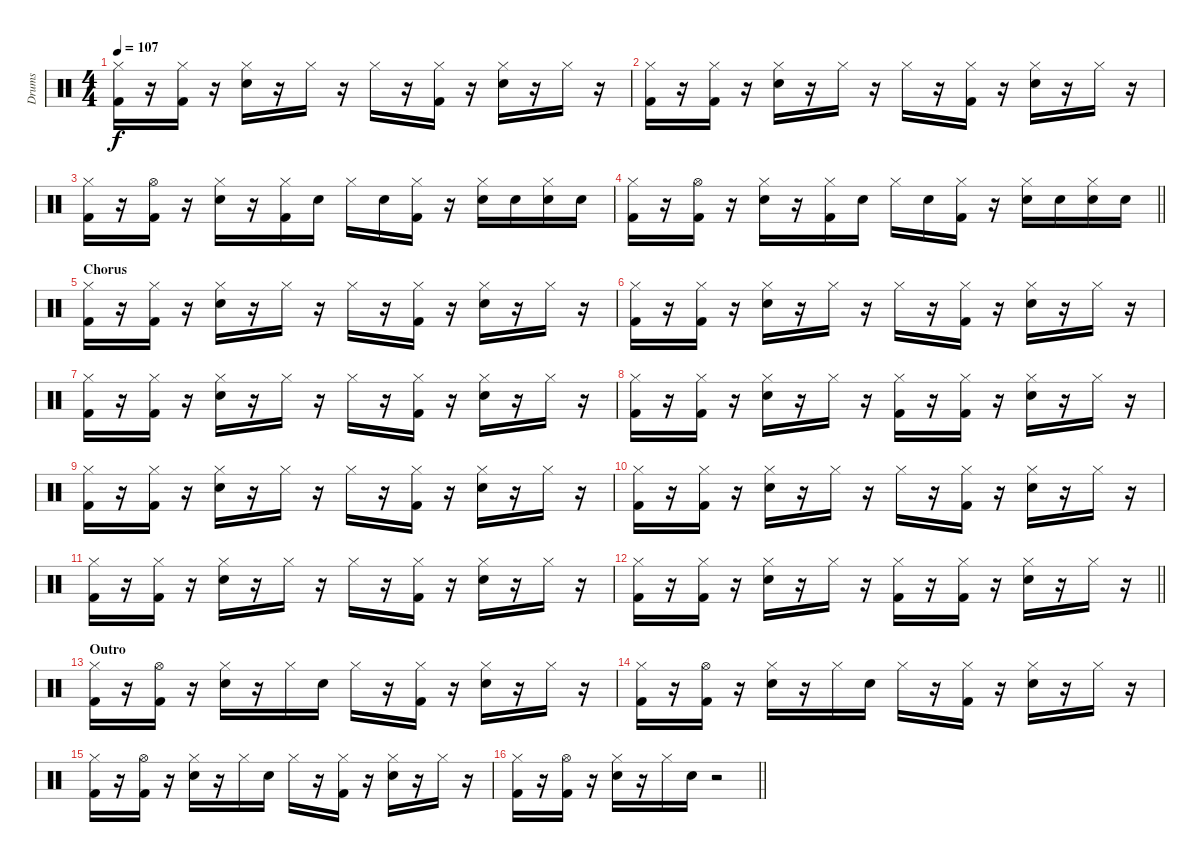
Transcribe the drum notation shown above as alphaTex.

\track ("Drums" "Drums") {instrument percussion}
\staff {score}
\articulation defaults
\ts (4 4)
\tempo 107
\clef neutral
\ks c
("Hi-Hat (closed)" "Kick (hit) 2").16{dy f} r.16 ("Hi-Hat (closed)" "Kick (hit) 2").16 r.16 ("Hi-Hat (closed)" "Electric Snare (hit)").16 r.16 "Hi-Hat (closed)".16 r.16 "Hi-Hat (closed)".16 r.16 ("Hi-Hat (closed)" "Kick (hit) 2").16 r.16 ("Hi-Hat (closed)" "Electric Snare (hit)").16 r.16 "Hi-Hat (closed)".16 r.16 |
("Hi-Hat (closed)" "Kick (hit) 2").16 r.16 ("Hi-Hat (closed)" "Kick (hit) 2").16 r.16 ("Hi-Hat (closed)" "Electric Snare (hit)").16 r.16 "Hi-Hat (closed)".16 r.16 "Hi-Hat (closed)".16 r.16 ("Hi-Hat (closed)" "Kick (hit) 2").16 r.16 ("Hi-Hat (closed)" "Electric Snare (hit)").16 r.16 "Hi-Hat (closed)".16 r.16 |
("Hi-Hat (closed)" "Kick (hit) 2").16 r.16 ("Hi-Hat (open)" "Kick (hit) 2").16 r.16 ("Hi-Hat (closed)" "Electric Snare (hit)").16 r.16 ("Hi-Hat (closed)" "Kick (hit) 2").16 "Electric Snare (hit)".16 "Hi-Hat (closed)".16 "Electric Snare (hit)".16 ("Hi-Hat (closed)" "Kick (hit) 2").16 r.16 ("Hi-Hat (closed)" "Electric Snare (hit)").16 "Electric Snare (hit)".16 ("Hi-Hat (closed)" "Electric Snare (hit)").16 "Electric Snare (hit)".16 |
\barLineRight lightlight
("Hi-Hat (closed)" "Kick (hit) 2").16 r.16 ("Hi-Hat (open)" "Kick (hit) 2").16 r.16 ("Hi-Hat (closed)" "Electric Snare (hit)").16 r.16 ("Hi-Hat (closed)" "Kick (hit) 2").16 "Electric Snare (hit)".16 "Hi-Hat (closed)".16 "Electric Snare (hit)".16 ("Hi-Hat (closed)" "Kick (hit) 2").16 r.16 ("Hi-Hat (closed)" "Electric Snare (hit)").16 "Electric Snare (hit)".16 ("Hi-Hat (closed)" "Electric Snare (hit)").16 "Electric Snare (hit)".16 |
\section ("" "Chorus")
("Hi-Hat (closed)" "Kick (hit) 2").16 r.16 ("Hi-Hat (closed)" "Kick (hit) 2").16 r.16 ("Hi-Hat (closed)" "Electric Snare (hit)").16 r.16 "Hi-Hat (closed)".16 r.16 "Hi-Hat (closed)".16 r.16 ("Hi-Hat (closed)" "Kick (hit) 2").16 r.16 ("Hi-Hat (closed)" "Electric Snare (hit)").16 r.16 "Hi-Hat (closed)".16 r.16 |
("Hi-Hat (closed)" "Kick (hit) 2").16 r.16 ("Hi-Hat (closed)" "Kick (hit) 2").16 r.16 ("Hi-Hat (closed)" "Electric Snare (hit)").16 r.16 "Hi-Hat (closed)".16 r.16 "Hi-Hat (closed)".16 r.16 ("Hi-Hat (closed)" "Kick (hit) 2").16 r.16 ("Hi-Hat (closed)" "Electric Snare (hit)").16 r.16 "Hi-Hat (closed)".16 r.16 |
("Hi-Hat (closed)" "Kick (hit) 2").16 r.16 ("Hi-Hat (closed)" "Kick (hit) 2").16 r.16 ("Hi-Hat (closed)" "Electric Snare (hit)").16 r.16 "Hi-Hat (closed)".16 r.16 "Hi-Hat (closed)".16 r.16 ("Hi-Hat (closed)" "Kick (hit) 2").16 r.16 ("Hi-Hat (closed)" "Electric Snare (hit)").16 r.16 "Hi-Hat (closed)".16 r.16 |
("Hi-Hat (closed)" "Kick (hit) 2").16 r.16 ("Hi-Hat (closed)" "Kick (hit) 2").16 r.16 ("Hi-Hat (closed)" "Electric Snare (hit)").16 r.16 "Hi-Hat (closed)".16 r.16 ("Hi-Hat (closed)" "Kick (hit) 2").16 r.16 ("Hi-Hat (closed)" "Kick (hit) 2").16 r.16 ("Hi-Hat (closed)" "Electric Snare (hit)").16 r.16 "Hi-Hat (closed)".16 r.16 |
("Hi-Hat (closed)" "Kick (hit) 2").16 r.16 ("Hi-Hat (closed)" "Kick (hit) 2").16 r.16 ("Hi-Hat (closed)" "Electric Snare (hit)").16 r.16 "Hi-Hat (closed)".16 r.16 "Hi-Hat (closed)".16 r.16 ("Hi-Hat (closed)" "Kick (hit) 2").16 r.16 ("Hi-Hat (closed)" "Electric Snare (hit)").16 r.16 "Hi-Hat (closed)".16 r.16 |
("Hi-Hat (closed)" "Kick (hit) 2").16 r.16 ("Hi-Hat (closed)" "Kick (hit) 2").16 r.16 ("Hi-Hat (closed)" "Electric Snare (hit)").16 r.16 "Hi-Hat (closed)".16 r.16 "Hi-Hat (closed)".16 r.16 ("Hi-Hat (closed)" "Kick (hit) 2").16 r.16 ("Hi-Hat (closed)" "Electric Snare (hit)").16 r.16 "Hi-Hat (closed)".16 r.16 |
("Hi-Hat (closed)" "Kick (hit) 2").16 r.16 ("Hi-Hat (closed)" "Kick (hit) 2").16 r.16 ("Hi-Hat (closed)" "Electric Snare (hit)").16 r.16 "Hi-Hat (closed)".16 r.16 "Hi-Hat (closed)".16 r.16 ("Hi-Hat (closed)" "Kick (hit) 2").16 r.16 ("Hi-Hat (closed)" "Electric Snare (hit)").16 r.16 "Hi-Hat (closed)".16 r.16 |
\barLineRight lightlight
("Hi-Hat (closed)" "Kick (hit) 2").16 r.16 ("Hi-Hat (closed)" "Kick (hit) 2").16 r.16 ("Hi-Hat (closed)" "Electric Snare (hit)").16 r.16 "Hi-Hat (closed)".16 r.16 ("Hi-Hat (closed)" "Kick (hit) 2").16 r.16 ("Hi-Hat (closed)" "Kick (hit) 2").16 r.16 ("Hi-Hat (closed)" "Electric Snare (hit)").16 r.16 "Hi-Hat (closed)".16 r.16 |
\section ("" "Outro")
("Hi-Hat (closed)" "Kick (hit) 2").16 r.16 ("Hi-Hat (open)" "Kick (hit) 2").16 r.16 ("Hi-Hat (closed)" "Electric Snare (hit)").16 r.16 "Hi-Hat (closed)".16 "Electric Snare (hit)".16 "Hi-Hat (closed)".16 r.16 ("Hi-Hat (closed)" "Kick (hit) 2").16 r.16 ("Hi-Hat (closed)" "Electric Snare (hit)").16 r.16 "Hi-Hat (closed)".16 r.16 |
("Hi-Hat (closed)" "Kick (hit) 2").16 r.16 ("Hi-Hat (open)" "Kick (hit) 2").16 r.16 ("Hi-Hat (closed)" "Electric Snare (hit)").16 r.16 "Hi-Hat (closed)".16 "Electric Snare (hit)".16 "Hi-Hat (closed)".16 r.16 ("Hi-Hat (closed)" "Kick (hit) 2").16 r.16 ("Hi-Hat (closed)" "Electric Snare (hit)").16 r.16 "Hi-Hat (closed)".16 r.16 |
("Hi-Hat (closed)" "Kick (hit) 2").16 r.16 ("Hi-Hat (open)" "Kick (hit) 2").16 r.16 ("Hi-Hat (closed)" "Electric Snare (hit)").16 r.16 "Hi-Hat (closed)".16 "Electric Snare (hit)".16 "Hi-Hat (closed)".16 r.16 ("Hi-Hat (closed)" "Kick (hit) 2").16 r.16 ("Hi-Hat (closed)" "Electric Snare (hit)").16 r.16 "Hi-Hat (closed)".16 r.16 |
\barLineRight lightlight
("Hi-Hat (closed)" "Kick (hit) 2").16 r.16 ("Hi-Hat (open)" "Kick (hit) 2").16 r.16 ("Hi-Hat (closed)" "Electric Snare (hit)").16 r.16 "Hi-Hat (closed)".16 "Electric Snare (hit)".16 r.2
